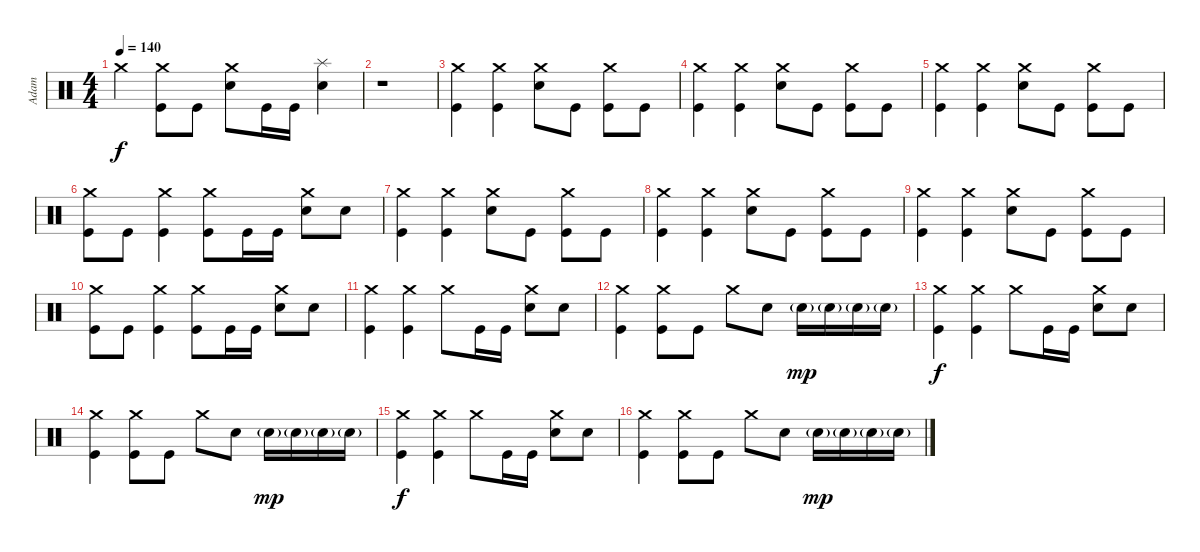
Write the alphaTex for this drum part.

\track ("Adam" "Adam") {instrument percussion}
\staff {score}
\articulation defaults
\ts (4 4)
\tempo 140
\clef neutral
\ks c "Crash medium (hit)".4{dy f}
("Crash medium (hit)" "Kick (hit)").8 "Kick (hit)".8 ("Crash medium (hit)" "Electric Snare (hit)").8 "Kick (hit)".16 "Kick (hit)".16 ("Splash (hit)" "Electric Snare (hit)").4 |
r.1 |
("Crash medium (hit)" "Kick (hit)").4 ("Crash medium (hit)" "Kick (hit)").4 ("Crash medium (hit)" "Electric Snare (hit)").8 "Kick (hit)".8 ("Crash medium (hit)" "Kick (hit)").8 "Kick (hit)".8 |
("Crash medium (hit)" "Kick (hit)").4 ("Crash medium (hit)" "Kick (hit)").4 ("Crash medium (hit)" "Electric Snare (hit)").8 "Kick (hit)".8 ("Crash medium (hit)" "Kick (hit)").8 "Kick (hit)".8 |
("Crash medium (hit)" "Kick (hit)").4 ("Crash medium (hit)" "Kick (hit)").4 ("Crash medium (hit)" "Electric Snare (hit)").8 "Kick (hit)".8 ("Crash medium (hit)" "Kick (hit)").8 "Kick (hit)".8 |
("Crash medium (hit)" "Kick (hit)").8 "Kick (hit)".8 ("Crash medium (hit)" "Kick (hit)").4 ("Crash medium (hit)" "Kick (hit)").8 "Kick (hit)".16 "Kick (hit)".16 ("Crash medium (hit)" "Electric Snare (hit)").8 "Electric Snare (hit)".8 |
("Crash medium (hit)" "Kick (hit)").4 ("Crash medium (hit)" "Kick (hit)").4 ("Crash medium (hit)" "Electric Snare (hit)").8 "Kick (hit)".8 ("Crash medium (hit)" "Kick (hit)").8 "Kick (hit)".8 |
("Crash medium (hit)" "Kick (hit)").4 ("Crash medium (hit)" "Kick (hit)").4 ("Crash medium (hit)" "Electric Snare (hit)").8 "Kick (hit)".8 ("Crash medium (hit)" "Kick (hit)").8 "Kick (hit)".8 |
("Crash medium (hit)" "Kick (hit)").4 ("Crash medium (hit)" "Kick (hit)").4 ("Crash medium (hit)" "Electric Snare (hit)").8 "Kick (hit)".8 ("Crash medium (hit)" "Kick (hit)").8 "Kick (hit)".8 |
("Crash medium (hit)" "Kick (hit)").8 "Kick (hit)".8 ("Crash medium (hit)" "Kick (hit)").4 ("Crash medium (hit)" "Kick (hit)").8 "Kick (hit)".16 "Kick (hit)".16 ("Crash medium (hit)" "Electric Snare (hit)").8 "Electric Snare (hit)".8 |
("Crash medium (hit)" "Kick (hit)").4 ("Crash medium (hit)" "Kick (hit)").4 "Crash medium (hit)".8 "Kick (hit)".16 "Kick (hit)".16 ("Crash medium (hit)" "Electric Snare (hit)").8 "Electric Snare (hit)".8 |
("Crash medium (hit)" "Kick (hit)").4 ("Crash medium (hit)" "Kick (hit)").8 "Kick (hit)".8 "Crash medium (hit)".8 "Electric Snare (hit)".8 "Electric Snare (hit)"{g}.16{dy mp} "Electric Snare (hit)"{g}.16 "Electric Snare (hit)"{g}.16 "Electric Snare (hit)"{g}.16 |
("Crash medium (hit)" "Kick (hit)").4{dy f} ("Crash medium (hit)" "Kick (hit)").4 "Crash medium (hit)".8 "Kick (hit)".16 "Kick (hit)".16 ("Crash medium (hit)" "Electric Snare (hit)").8 "Electric Snare (hit)".8 |
("Crash medium (hit)" "Kick (hit)").4 ("Crash medium (hit)" "Kick (hit)").8 "Kick (hit)".8 "Crash medium (hit)".8 "Electric Snare (hit)".8 "Electric Snare (hit)"{g}.16{dy mp} "Electric Snare (hit)"{g}.16 "Electric Snare (hit)"{g}.16 "Electric Snare (hit)"{g}.16 |
("Crash medium (hit)" "Kick (hit)").4{dy f} ("Crash medium (hit)" "Kick (hit)").4 "Crash medium (hit)".8 "Kick (hit)".16 "Kick (hit)".16 ("Crash medium (hit)" "Electric Snare (hit)").8 "Electric Snare (hit)".8 |
("Crash medium (hit)" "Kick (hit)").4 ("Crash medium (hit)" "Kick (hit)").8 "Kick (hit)".8 "Crash medium (hit)".8 "Electric Snare (hit)".8 "Electric Snare (hit)"{g}.16{dy mp} "Electric Snare (hit)"{g}.16 "Electric Snare (hit)"{g}.16 "Electric Snare (hit)"{g}.16
